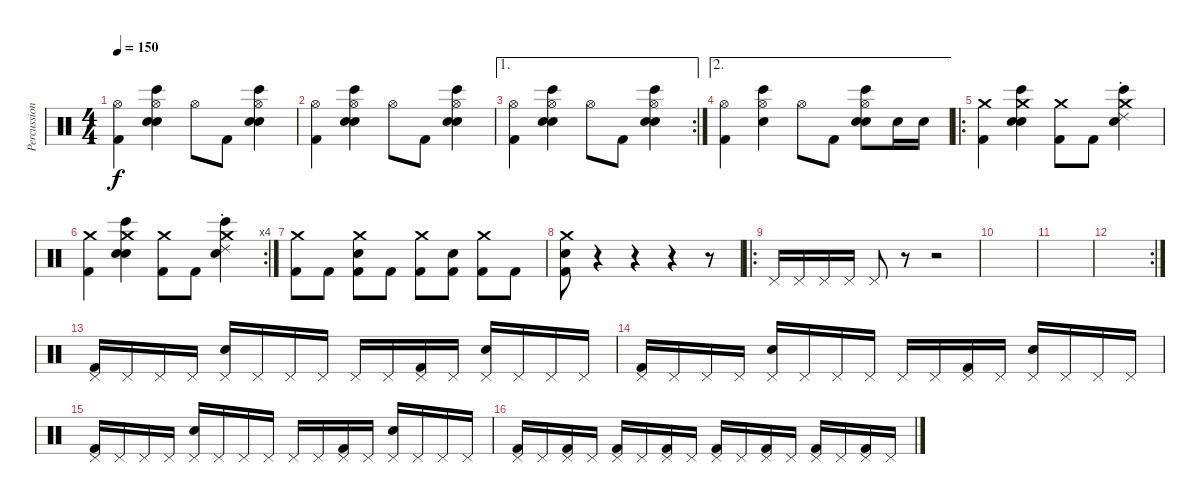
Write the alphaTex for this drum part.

\track ("Percussion" "Percussion") {instrument percussion}
\staff {score}
\articulation defaults
\ts (4 4)
\tempo 150
\clef neutral
\ks c
("Hi-Hat (open)" "Kick (hit) 2").4{dy f} ("Hi-Hat (open)" "Hand Clap (hit)" "Bongo High (hit)" "Snare (hit) 2").4 "Hi-Hat (open)".8 "Kick (hit) 2".8 ("Hi-Hat (open)" "Hand Clap (hit)" "Bongo High (hit)" "Snare (hit) 2").4 |
("Hi-Hat (open)" "Kick (hit) 2").4 ("Hi-Hat (open)" "Hand Clap (hit)" "Bongo High (hit)" "Snare (hit) 2").4 "Hi-Hat (open)".8 "Kick (hit) 2".8 ("Hi-Hat (open)" "Hand Clap (hit)" "Bongo High (hit)" "Snare (hit) 2").4 |
\ae 1
\rc 2
("Hi-Hat (open)" "Kick (hit) 2").4 ("Hi-Hat (open)" "Hand Clap (hit)" "Bongo High (hit)" "Snare (hit) 2").4 "Hi-Hat (open)".8 "Kick (hit) 2".8 ("Hi-Hat (open)" "Hand Clap (hit)" "Bongo High (hit)" "Snare (hit) 2").4 |
\ae 2
("Hi-Hat (open)" "Kick (hit) 2").4 ("Hi-Hat (open)" "Bongo High (hit)" "Snare (hit) 2").4 "Hi-Hat (open)".8 "Kick (hit) 2".8 ("Hi-Hat (open)" "Hand Clap (hit)" "Bongo High (hit)" "Snare (hit) 2").8 "Snare (hit) 2".16 "Snare (hit) 2".16 |
\ro
("Crash medium (hit)" "Kick (hit) 2").4 ("Crash medium (hit)" "Bongo High (hit)" "Hand Clap (hit)" "Snare (hit) 2").4 ("Crash medium (hit)" "Kick (hit) 2").8 "Kick (hit) 2".8 ("Crash medium (hit)" "Bongo High (hit)" "Ride (choke) 2" "Snare (hit) 2").4 |
\rc 4
("Crash medium (hit)" "Kick (hit) 2").4 ("Crash medium (hit)" "Bongo High (hit)" "Hand Clap (hit)" "Snare (hit) 2").4 ("Crash medium (hit)" "Kick (hit) 2").8 "Kick (hit) 2".8 ("Crash medium (hit)" "Bongo High (hit)" "Ride (choke) 2" "Snare (hit) 2").4 |
("Crash medium (hit)" "Kick (hit) 2").8 "Kick (hit) 2".8 ("Crash medium (hit)" "Snare (hit) 2" "Kick (hit) 2").8 "Kick (hit) 2".8 ("Crash medium (hit)" "Kick (hit) 2").8 ("Snare (hit) 2" "Kick (hit) 2").8 ("Crash medium (hit)" "Kick (hit) 2").8 "Kick (hit) 2".8 |
("Crash medium (hit)" "Snare (hit) 2" "Kick (hit) 2").8 r.4 r.4 r.4 r.8 |
\ro "Pedal Hi-Hat (hit)".16 "Pedal Hi-Hat (hit)".16 "Pedal Hi-Hat (hit)".16 "Pedal Hi-Hat (hit)".16 "Pedal Hi-Hat (hit)".8
r.8 r.2 |
|
|
\rc 2
|
("Pedal Hi-Hat (hit)" "Kick (hit) 2").16 "Pedal Hi-Hat (hit)".16 "Pedal Hi-Hat (hit)".16 "Pedal Hi-Hat (hit)".16 ("Pedal Hi-Hat (hit)" "Snare (hit) 2").16 "Pedal Hi-Hat (hit)".16 "Pedal Hi-Hat (hit)".16 "Pedal Hi-Hat (hit)".16 "Pedal Hi-Hat (hit)".16 "Pedal Hi-Hat (hit)".16 ("Pedal Hi-Hat (hit)" "Kick (hit) 2").16 "Pedal Hi-Hat (hit)".16 ("Pedal Hi-Hat (hit)" "Snare (hit) 2").16 "Pedal Hi-Hat (hit)".16 "Pedal Hi-Hat (hit)".16 "Pedal Hi-Hat (hit)".16 |
("Pedal Hi-Hat (hit)" "Kick (hit) 2").16 "Pedal Hi-Hat (hit)".16 "Pedal Hi-Hat (hit)".16 "Pedal Hi-Hat (hit)".16 ("Pedal Hi-Hat (hit)" "Snare (hit) 2").16 "Pedal Hi-Hat (hit)".16 "Pedal Hi-Hat (hit)".16 "Pedal Hi-Hat (hit)".16 "Pedal Hi-Hat (hit)".16 "Pedal Hi-Hat (hit)".16 ("Pedal Hi-Hat (hit)" "Kick (hit) 2").16 "Pedal Hi-Hat (hit)".16 ("Pedal Hi-Hat (hit)" "Snare (hit) 2").16 "Pedal Hi-Hat (hit)".16 "Pedal Hi-Hat (hit)".16 "Pedal Hi-Hat (hit)".16 |
("Pedal Hi-Hat (hit)" "Kick (hit) 2").16 "Pedal Hi-Hat (hit)".16 "Pedal Hi-Hat (hit)".16 "Pedal Hi-Hat (hit)".16 ("Pedal Hi-Hat (hit)" "Snare (hit) 2").16 "Pedal Hi-Hat (hit)".16 "Pedal Hi-Hat (hit)".16 "Pedal Hi-Hat (hit)".16 "Pedal Hi-Hat (hit)".16 "Pedal Hi-Hat (hit)".16 ("Pedal Hi-Hat (hit)" "Kick (hit) 2").16 "Pedal Hi-Hat (hit)".16 ("Pedal Hi-Hat (hit)" "Snare (hit) 2").16 "Pedal Hi-Hat (hit)".16 "Pedal Hi-Hat (hit)".16 "Pedal Hi-Hat (hit)".16 |
("Pedal Hi-Hat (hit)" "Kick (hit) 2").16 "Pedal Hi-Hat (hit)".16 ("Pedal Hi-Hat (hit)" "Kick (hit) 2").16 "Pedal Hi-Hat (hit)".16 ("Pedal Hi-Hat (hit)" "Kick (hit) 2").16 "Pedal Hi-Hat (hit)".16 ("Pedal Hi-Hat (hit)" "Kick (hit) 2").16 "Pedal Hi-Hat (hit)".16 ("Pedal Hi-Hat (hit)" "Kick (hit) 2").16 "Pedal Hi-Hat (hit)".16 ("Pedal Hi-Hat (hit)" "Kick (hit) 2").16 "Pedal Hi-Hat (hit)".16 ("Pedal Hi-Hat (hit)" "Kick (hit) 2").16 "Pedal Hi-Hat (hit)".16 ("Pedal Hi-Hat (hit)" "Kick (hit) 2").16 "Pedal Hi-Hat (hit)".16
